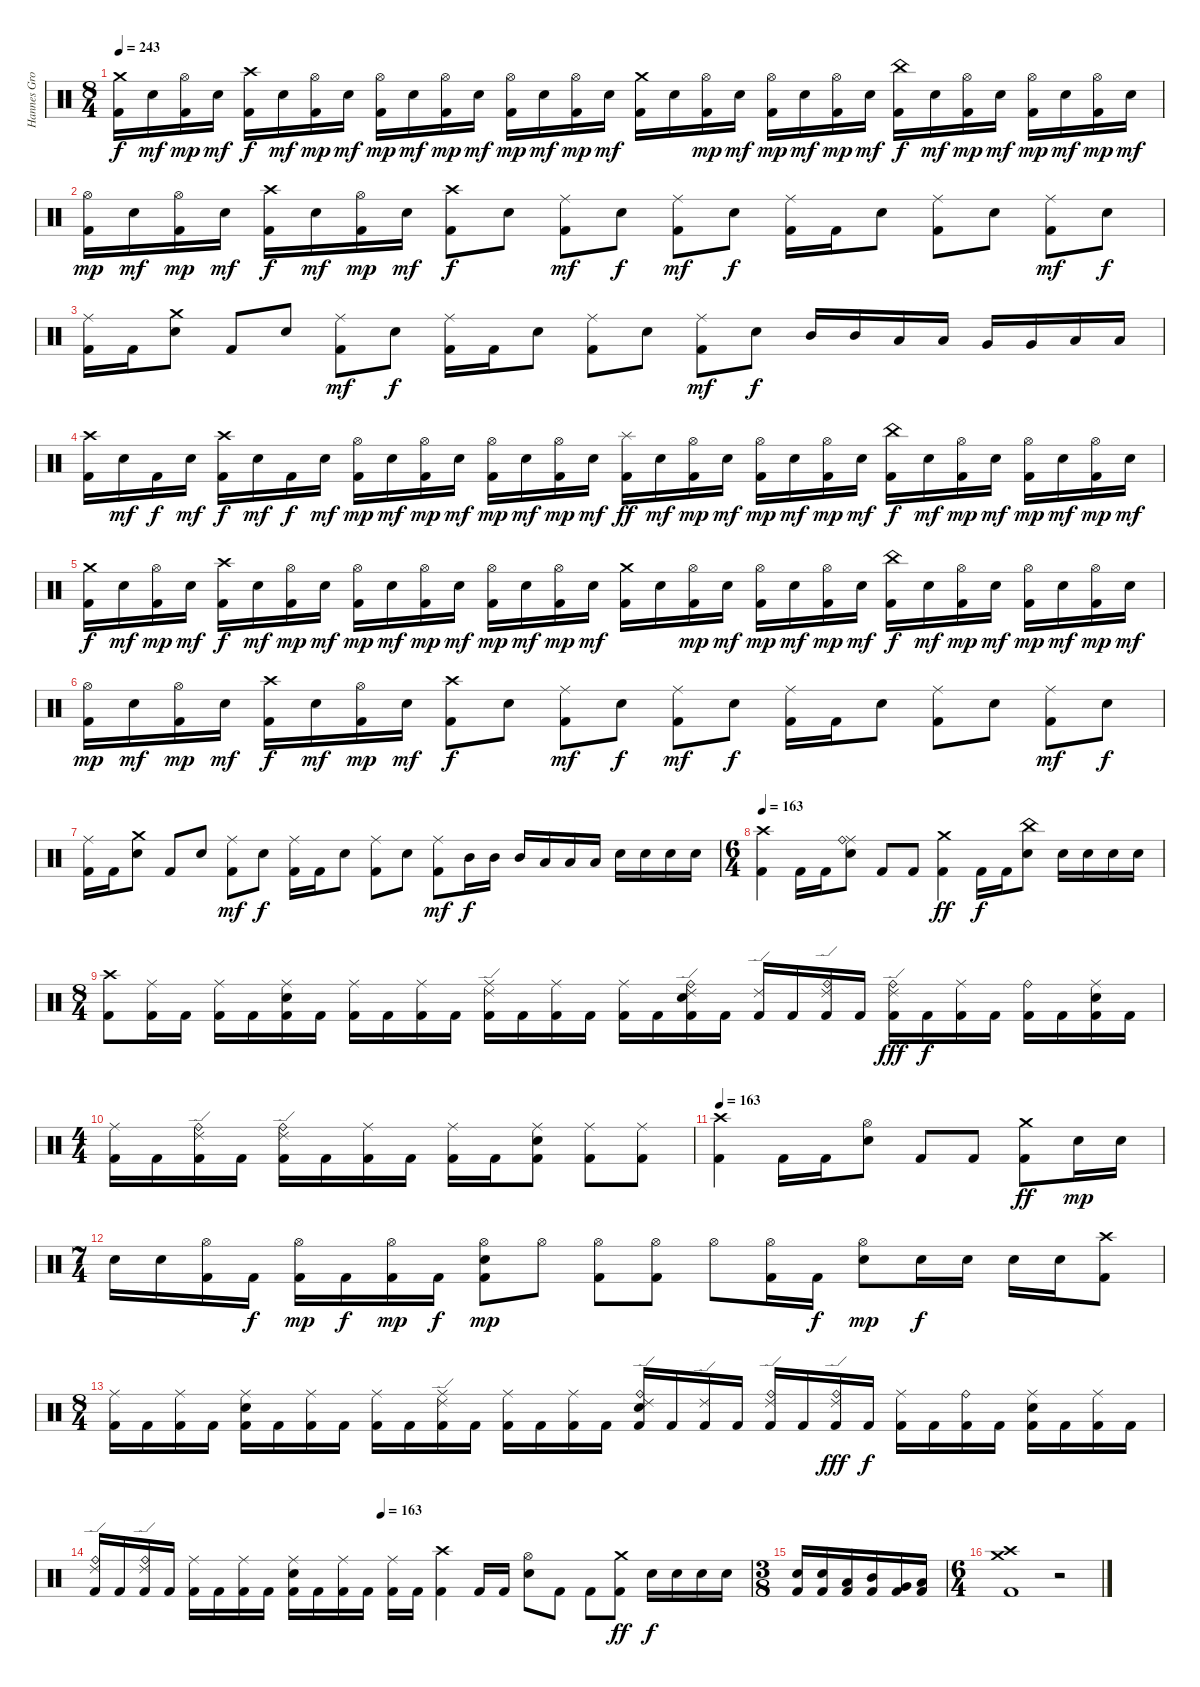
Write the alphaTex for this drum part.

\track ("Hannes Grossmann" "Hannes Gro") {instrument percussion}
\staff {score}
\articulation defaults
\ts (8 4)
\tempo 243
\clef neutral
\ks c
("Crash medium (hit)" "Kick (hit) 2").16{dy f} "Snare (hit) 2".16{dy mf} ("Hi-Hat (open)" "Kick (hit) 2").16{dy mp} "Snare (hit) 2".16{dy mf} ("Crash high (hit)" "Kick (hit) 2").16{dy f} "Snare (hit) 2".16{dy mf} ("Hi-Hat (open)" "Kick (hit) 2").16{dy mp} "Snare (hit) 2".16{dy mf} ("Hi-Hat (open)" "Kick (hit) 2").16{dy mp} "Snare (hit) 2".16{dy mf} ("Hi-Hat (open)" "Kick (hit) 2").16{dy mp} "Snare (hit) 2".16{dy mf} ("Hi-Hat (open)" "Kick (hit) 2").16{dy mp} "Snare (hit) 2".16{dy mf} ("Hi-Hat (open)" "Kick (hit) 2").16{dy mp} "Snare (hit) 2".16{dy mf} ("Crash medium (hit)" "Kick (hit) 2").16 "Snare (hit) 2".16 ("Hi-Hat (open)" "Kick (hit) 2").16{dy mp} "Snare (hit) 2".16{dy mf} ("Hi-Hat (open)" "Kick (hit) 2").16{dy mp} "Snare (hit) 2".16{dy mf} ("Hi-Hat (open)" "Kick (hit) 2").16{dy mp} "Snare (hit) 2".16{dy mf} ("China (hit)" "Kick (hit) 2").16{dy f} "Snare (hit) 2".16{dy mf} ("Hi-Hat (open)" "Kick (hit) 2").16{dy mp} "Snare (hit) 2".16{dy mf} ("Hi-Hat (open)" "Kick (hit) 2").16{dy mp} "Snare (hit) 2".16{dy mf} ("Hi-Hat (open)" "Kick (hit) 2").16{dy mp} "Snare (hit) 2".16{dy mf} |
("Hi-Hat (open)" "Kick (hit) 2").16{dy mp} "Snare (hit) 2".16{dy mf} ("Hi-Hat (open)" "Kick (hit) 2").16{dy mp} "Snare (hit) 2".16{dy mf} ("Crash high (hit)" "Kick (hit) 2").16{dy f} "Snare (hit) 2".16{dy mf} ("Hi-Hat (open)" "Kick (hit) 2").16{dy mp} "Snare (hit) 2".16{dy mf} ("Crash high (hit)" "Kick (hit) 2").8{dy f} "Snare (hit) 2".8 ("Ride (middle)" "Kick (hit) 2").8{dy mf} "Snare (hit) 2".8{dy f} ("Ride (middle)" "Kick (hit) 2").8{dy mf} "Snare (hit) 2".8{dy f} ("Ride (middle)" "Kick (hit) 2").16 "Kick (hit) 2".16 "Snare (hit) 2".8 ("Ride (middle)" "Kick (hit) 2").8 "Snare (hit) 2".8 ("Ride (middle)" "Kick (hit) 2").8{dy mf} "Snare (hit) 2".8{dy f} |
("Ride (middle)" "Kick (hit) 2").16 "Kick (hit) 2".16 ("Crash medium (hit)" "Snare (hit) 2").8 "Kick (hit) 2".8 "Snare (hit) 2".8 ("Ride (middle)" "Kick (hit) 2").8{dy mf} "Snare (hit) 2".8{dy f} ("Ride (middle)" "Kick (hit) 2").16 "Kick (hit) 2".16 "Snare (hit) 2".8 ("Ride (middle)" "Kick (hit) 2").8 "Snare (hit) 2".8 ("Ride (middle)" "Kick (hit) 2").8{dy mf} "Snare (hit) 2".8{dy f} "Mid Tom (hit)".16 "Mid Tom (hit)".16 "Low Tom (hit)".16 "Low Tom (hit)".16 "Very Low Tom (hit)".16 "Very Low Tom (hit)".16 "Low Floor Tom (hit)".16 "Low Floor Tom (hit)".16 |
("Crash high (hit)" "Kick (hit) 2").16 "Snare (hit) 2".16{dy mf} "Kick (hit) 2".16{dy f} "Snare (hit) 2".16{dy mf} ("Crash high (hit)" "Kick (hit) 2").16{dy f} "Snare (hit) 2".16{dy mf} "Kick (hit) 2".16{dy f} "Snare (hit) 2".16{dy mf} ("Hi-Hat (open)" "Kick (hit) 2").16{dy mp} "Snare (hit) 2".16{dy mf} ("Hi-Hat (open)" "Kick (hit) 2").16{dy mp} "Snare (hit) 2".16{dy mf} ("Hi-Hat (open)" "Kick (hit) 2").16{dy mp} "Snare (hit) 2".16{dy mf} ("Hi-Hat (open)" "Kick (hit) 2").16{dy mp} "Snare (hit) 2".16{dy mf} ("Splash (hit)" "Kick (hit) 2").16{dy ff} "Snare (hit) 2".16{dy mf} ("Hi-Hat (open)" "Kick (hit) 2").16{dy mp} "Snare (hit) 2".16{dy mf} ("Hi-Hat (open)" "Kick (hit) 2").16{dy mp} "Snare (hit) 2".16{dy mf} ("Hi-Hat (open)" "Kick (hit) 2").16{dy mp} "Snare (hit) 2".16{dy mf} ("China (hit)" "Kick (hit) 2").16{dy f} "Snare (hit) 2".16{dy mf} ("Hi-Hat (open)" "Kick (hit) 2").16{dy mp} "Snare (hit) 2".16{dy mf} ("Hi-Hat (open)" "Kick (hit) 2").16{dy mp} "Snare (hit) 2".16{dy mf} ("Hi-Hat (open)" "Kick (hit) 2").16{dy mp} "Snare (hit) 2".16{dy mf} |
("Crash medium (hit)" "Kick (hit) 2").16{dy f} "Snare (hit) 2".16{dy mf} ("Hi-Hat (open)" "Kick (hit) 2").16{dy mp} "Snare (hit) 2".16{dy mf} ("Crash high (hit)" "Kick (hit) 2").16{dy f} "Snare (hit) 2".16{dy mf} ("Hi-Hat (open)" "Kick (hit) 2").16{dy mp} "Snare (hit) 2".16{dy mf} ("Hi-Hat (open)" "Kick (hit) 2").16{dy mp} "Snare (hit) 2".16{dy mf} ("Hi-Hat (open)" "Kick (hit) 2").16{dy mp} "Snare (hit) 2".16{dy mf} ("Hi-Hat (open)" "Kick (hit) 2").16{dy mp} "Snare (hit) 2".16{dy mf} ("Hi-Hat (open)" "Kick (hit) 2").16{dy mp} "Snare (hit) 2".16{dy mf} ("Crash medium (hit)" "Kick (hit) 2").16 "Snare (hit) 2".16 ("Hi-Hat (open)" "Kick (hit) 2").16{dy mp} "Snare (hit) 2".16{dy mf} ("Hi-Hat (open)" "Kick (hit) 2").16{dy mp} "Snare (hit) 2".16{dy mf} ("Hi-Hat (open)" "Kick (hit) 2").16{dy mp} "Snare (hit) 2".16{dy mf} ("China (hit)" "Kick (hit) 2").16{dy f} "Snare (hit) 2".16{dy mf} ("Hi-Hat (open)" "Kick (hit) 2").16{dy mp} "Snare (hit) 2".16{dy mf} ("Hi-Hat (open)" "Kick (hit) 2").16{dy mp} "Snare (hit) 2".16{dy mf} ("Hi-Hat (open)" "Kick (hit) 2").16{dy mp} "Snare (hit) 2".16{dy mf} |
("Hi-Hat (open)" "Kick (hit) 2").16{dy mp} "Snare (hit) 2".16{dy mf} ("Hi-Hat (open)" "Kick (hit) 2").16{dy mp} "Snare (hit) 2".16{dy mf} ("Crash high (hit)" "Kick (hit) 2").16{dy f} "Snare (hit) 2".16{dy mf} ("Hi-Hat (open)" "Kick (hit) 2").16{dy mp} "Snare (hit) 2".16{dy mf} ("Crash high (hit)" "Kick (hit) 2").8{dy f} "Snare (hit) 2".8 ("Ride (middle)" "Kick (hit) 2").8{dy mf} "Snare (hit) 2".8{dy f} ("Ride (middle)" "Kick (hit) 2").8{dy mf} "Snare (hit) 2".8{dy f} ("Ride (middle)" "Kick (hit) 2").16 "Kick (hit) 2".16 "Snare (hit) 2".8 ("Ride (middle)" "Kick (hit) 2").8 "Snare (hit) 2".8 ("Ride (middle)" "Kick (hit) 2").8{dy mf} "Snare (hit) 2".8{dy f} |
("Ride (middle)" "Kick (hit) 2").16 "Kick (hit) 2".16 ("Crash medium (hit)" "Snare (hit) 2").8 "Kick (hit) 2".8 "Snare (hit) 2".8 ("Ride (middle)" "Kick (hit) 2").8{dy mf} "Snare (hit) 2".8{dy f} ("Ride (middle)" "Kick (hit) 2").16 "Kick (hit) 2".16 "Snare (hit) 2".8 ("Ride (middle)" "Kick (hit) 2").8 "Snare (hit) 2".8 ("Ride (middle)" "Kick (hit) 2").8{dy mf} "Mid Tom (hit)".16{dy f} "Mid Tom (hit)".16 "Mid Tom (hit)".16 "Low Tom (hit)".16 "Low Tom (hit)".16 "Low Tom (hit)".16 "Snare (hit) 2".16 "Snare (hit) 2".16 "Snare (hit) 2".16 "Snare (hit) 2".16 |
\ts (6 4)
\tempo 163
("Crash high (hit)" "Kick (hit) 2").4 "Kick (hit) 2".16 "Kick (hit) 2".16 ("Ride (middle)" "Ride (bell)" "Snare (hit) 2").8 "Kick (hit) 2".8 "Kick (hit) 2".8 ("Crash medium (hit)" "Kick (hit) 2").4{dy ff} "Kick (hit) 2".16{dy f} "Kick (hit) 2".16 ("China (hit)" "Snare (hit) 2").8 "Snare (hit) 2".16{volume 11} "Snare (hit) 2".16{volume 12} "Snare (hit) 2".16{volume 13} "Snare (hit) 2".16 |
\ts (8 4)
("Crash high (hit)" "Kick (hit) 2").8 ("Ride (middle)" "Kick (hit) 2").16 "Kick (hit) 2".16 ("Ride (middle)" "Kick (hit) 2").16 "Kick (hit) 2".16 ("Ride (middle)" "Snare (hit) 2" "Kick (hit) 2").16 "Kick (hit) 2".16 ("Ride (middle)" "Kick (hit) 2").16 "Kick (hit) 2".16 ("Ride (middle)" "Kick (hit) 2").16 "Kick (hit) 2".16 ("Ride (middle)" "Ride (edge) 2" "Kick (hit) 2").16 "Kick (hit) 2".16 ("Ride (middle)" "Kick (hit) 2").16 "Kick (hit) 2".16 ("Ride (middle)" "Kick (hit) 2").16 "Kick (hit) 2".16 ("Ride (bell)" "Ride (edge) 2" "Snare (hit) 2" "Kick (hit) 2").16 "Kick (hit) 2".16 ("Ride (edge) 2" "Kick (hit) 2").16 "Kick (hit) 2".16 ("Ride (bell)" "Ride (edge) 2" "Kick (hit) 2").16 "Kick (hit) 2".16 ("Ride (bell)" "Ride (edge) 2" "Kick (hit) 2").16{dy fff} "Kick (hit) 2".16{dy f} ("Ride (middle)" "Kick (hit) 2").16 "Kick (hit) 2".16 ("Ride (bell)" "Kick (hit) 2").16 "Kick (hit) 2".16 ("Ride (middle)" "Snare (hit) 2" "Kick (hit) 2").16 "Kick (hit) 2".16 |
\ts (4 4)
("Ride (middle)" "Kick (hit) 2").16 "Kick (hit) 2".16 ("Ride (bell)" "Ride (edge) 2" "Kick (hit) 2").16 "Kick (hit) 2".16 ("Ride (bell)" "Ride (edge) 2" "Kick (hit) 2").16 "Kick (hit) 2".16 ("Ride (middle)" "Kick (hit) 2").16 "Kick (hit) 2".16 ("Ride (middle)" "Kick (hit) 2").16 "Kick (hit) 2".16 ("Ride (middle)" "Snare (hit) 2" "Kick (hit) 2").8 ("Ride (middle)" "Kick (hit) 2").8 ("Ride (middle)" "Kick (hit) 2").8 |
\tempo 163
("Crash high (hit)" "Kick (hit) 2").4 "Kick (hit) 2".16 "Kick (hit) 2".16 ("Hi-Hat (open)" "Snare (hit) 2").8 "Kick (hit) 2".8 "Kick (hit) 2".8 ("Crash medium (hit)" "Kick (hit) 2").8{dy ff} "Snare (hit) 2".16{dy mp volume 10} "Snare (hit) 2".16{volume 11} |
\ts (7 4)
"Snare (hit) 2".16{volume 12} "Snare (hit) 2".16{volume 13} ("Hi-Hat (open)" "Kick (hit) 2").16 "Kick (hit) 2".16{dy f} ("Hi-Hat (open)" "Kick (hit) 2").16{dy mp} "Kick (hit) 2".16{dy f} ("Hi-Hat (open)" "Kick (hit) 2").16{dy mp} "Kick (hit) 2".16{dy f} ("Hi-Hat (open)" "Snare (hit) 2" "Kick (hit) 2").8{dy mp} "Hi-Hat (open)".8 ("Hi-Hat (open)" "Kick (hit) 2").8 ("Hi-Hat (open)" "Kick (hit) 2").8 "Hi-Hat (open)".8 ("Hi-Hat (open)" "Kick (hit) 2").16 "Kick (hit) 2".16{dy f} ("Hi-Hat (open)" "Snare (hit) 2").8{dy mp} "Snare (hit) 2".16{dy f} "Snare (hit) 2".16 "Snare (hit) 2".16 "Snare (hit) 2".16 ("Crash high (hit)" "Kick (hit) 2").8 |
\ts (8 4)
("Ride (middle)" "Kick (hit) 2").16 "Kick (hit) 2".16 ("Ride (middle)" "Kick (hit) 2").16 "Kick (hit) 2".16 ("Ride (middle)" "Snare (hit) 2" "Kick (hit) 2").16 "Kick (hit) 2".16 ("Ride (middle)" "Kick (hit) 2").16 "Kick (hit) 2".16 ("Ride (middle)" "Kick (hit) 2").16 "Kick (hit) 2".16 ("Ride (middle)" "Ride (edge) 2" "Kick (hit) 2").16 "Kick (hit) 2".16 ("Ride (middle)" "Kick (hit) 2").16 "Kick (hit) 2".16 ("Ride (middle)" "Kick (hit) 2").16 "Kick (hit) 2".16 ("Ride (bell)" "Ride (edge) 2" "Snare (hit) 2" "Kick (hit) 2").16 "Kick (hit) 2".16 ("Ride (edge) 2" "Kick (hit) 2").16 "Kick (hit) 2".16 ("Ride (bell)" "Ride (edge) 2" "Kick (hit) 2").16 "Kick (hit) 2".16 ("Ride (bell)" "Ride (edge) 2" "Kick (hit) 2").16{dy fff} "Kick (hit) 2".16{dy f} ("Ride (middle)" "Kick (hit) 2").16 "Kick (hit) 2".16 ("Ride (bell)" "Kick (hit) 2").16 "Kick (hit) 2".16 ("Ride (middle)" "Snare (hit) 2" "Kick (hit) 2").16 "Kick (hit) 2".16 ("Ride (middle)" "Kick (hit) 2").16 "Kick (hit) 2".16 |
\tempo (163 0.4375)
("Ride (bell)" "Ride (edge) 2" "Kick (hit) 2").16 "Kick (hit) 2".16 ("Ride (bell)" "Ride (edge) 2" "Kick (hit) 2").16 "Kick (hit) 2".16 ("Ride (middle)" "Kick (hit) 2").16 "Kick (hit) 2".16 ("Ride (middle)" "Kick (hit) 2").16 "Kick (hit) 2".16 ("Ride (middle)" "Snare (hit) 2" "Kick (hit) 2").16 "Kick (hit) 2".16 ("Ride (middle)" "Kick (hit) 2").16 "Kick (hit) 2".16 ("Ride (middle)" "Kick (hit) 2").16 "Kick (hit) 2".16 ("Crash high (hit)" "Kick (hit) 2").4 "Kick (hit) 2".16 "Kick (hit) 2".16 ("Hi-Hat (open)" "Snare (hit) 2").8 "Kick (hit) 2".8 "Kick (hit) 2".8 ("Crash medium (hit)" "Kick (hit) 2").8{dy ff} "Snare (hit) 2".16{dy f} "Snare (hit) 2".16 "Snare (hit) 2".16 "Snare (hit) 2".16 |
\ts (3 8)
("Snare (hit) 2" "Kick (hit) 2").16 ("Snare (hit) 2" "Kick (hit) 2").16 ("Low Tom (hit)" "Kick (hit) 2").16 ("Mid Tom (hit)" "Kick (hit) 2").16 ("Very Low Tom (hit)" "Kick (hit) 2").16 ("Low Floor Tom (hit)" "Kick (hit) 2").16 |
\ts (6 4)
("Crash high (hit)" "Crash medium (hit)" "Kick (hit) 2").1 r.2
